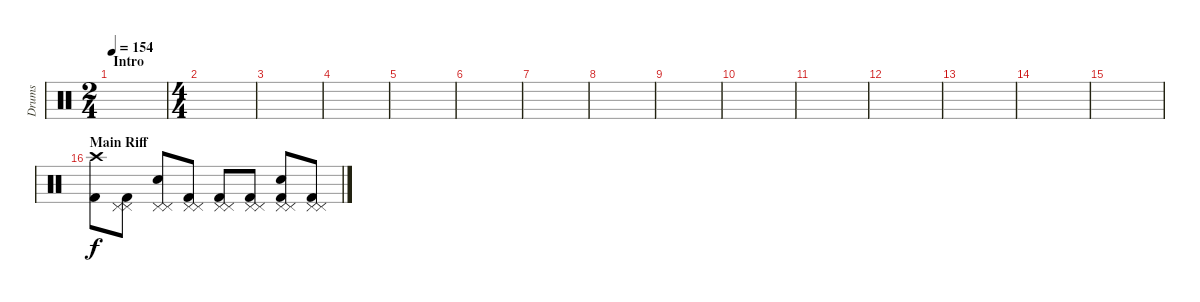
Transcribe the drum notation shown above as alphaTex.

\track ("Drums" "Drums") {instrument percussion}
\staff {score}
\articulation defaults
\ts (2 4)
\section ("" "Intro")
\tempo 154
\clef neutral
\ks c
|
\ts (4 4)
|
|
|
|
|
|
|
|
|
|
|
|
|
|
\section ("" "Main Riff")
("Crash high (hit)" "Kick (hit) 2").8 ("Pedal Hi-Hat (hit)" "Pedal Hi-Hat (hit)" "Kick (hit) 2").8 ("Electric Snare (hit)" "Pedal Hi-Hat (hit)" "Pedal Hi-Hat (hit)").8 ("Pedal Hi-Hat (hit)" "Pedal Hi-Hat (hit)" "Kick (hit) 2").8 ("Pedal Hi-Hat (hit)" "Pedal Hi-Hat (hit)" "Kick (hit) 2").8 ("Pedal Hi-Hat (hit)" "Pedal Hi-Hat (hit)" "Kick (hit) 2").8 ("Electric Snare (hit)" "Pedal Hi-Hat (hit)" "Pedal Hi-Hat (hit)" "Kick (hit) 2").8 ("Pedal Hi-Hat (hit)" "Pedal Hi-Hat (hit)" "Kick (hit) 2").8
